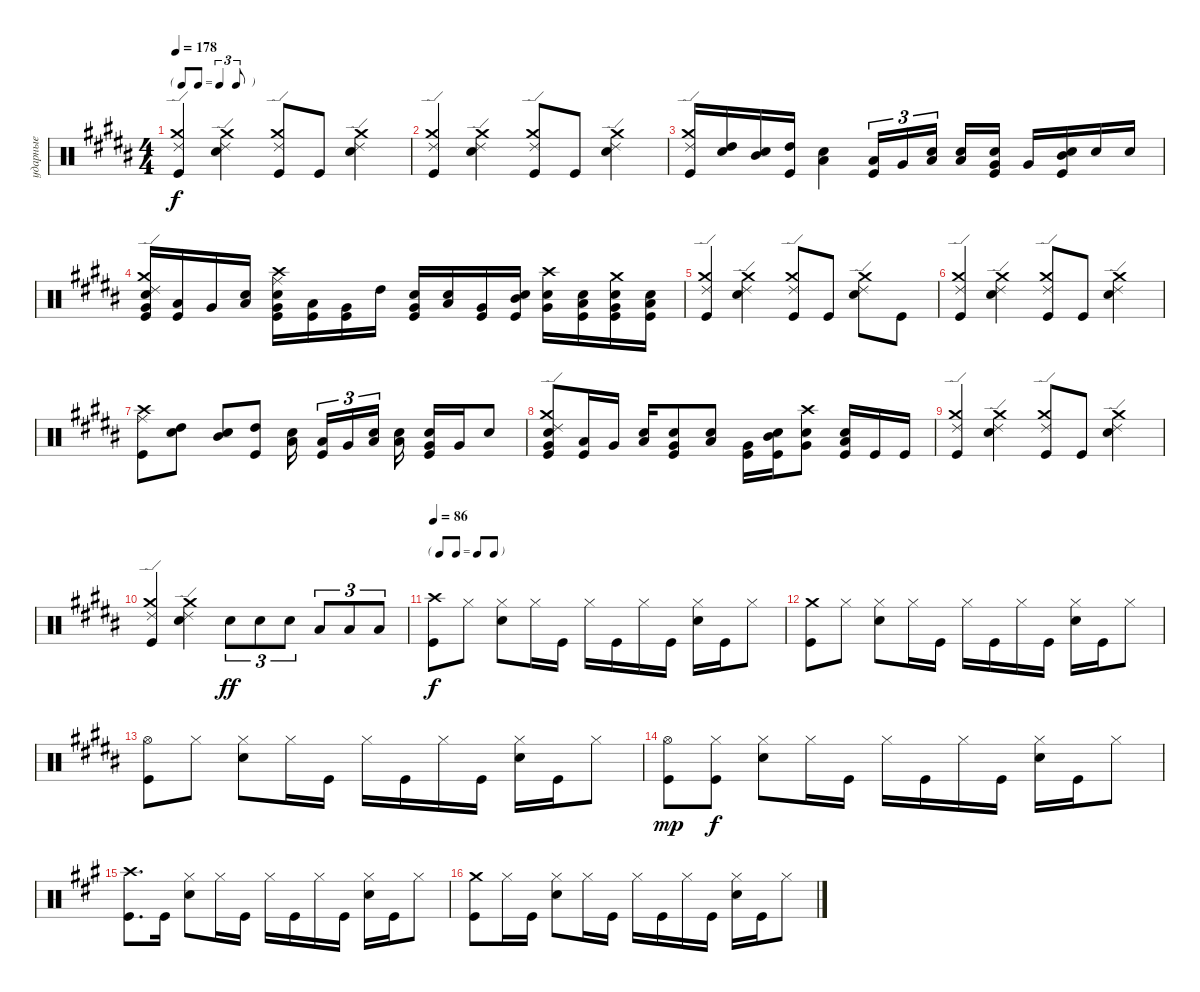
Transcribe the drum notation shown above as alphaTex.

\track ("ударные" "ударные") {instrument percussion}
\staff {score}
\articulation defaults
\ts (4 4)
\tf triplet8th
\tempo 178
\clef neutral
\ks b
("Kick (hit)" "Crash medium (hit)" "Ride (edge) 2").4{dy f} ("Snare (hit) 2" "Crash medium (hit)" "Ride (edge) 2").4 ("Kick (hit)" "Crash medium (hit)" "Ride (edge) 2").8 "Kick (hit)".8 ("Snare (hit) 2" "Crash medium (hit)" "Ride (edge) 2").4 |
("Kick (hit)" "Crash medium (hit)" "Ride (edge) 2").4 ("Snare (hit) 2" "Crash medium (hit)" "Ride (edge) 2").4 ("Kick (hit)" "Crash medium (hit)" "Ride (edge) 2").8 "Kick (hit)".8 ("Snare (hit) 2" "Crash medium (hit)" "Ride (edge) 2").4 |
("Crash medium (hit)" "Ride (edge) 2" "Kick (hit)").16 ("High Tom (hit)" "Snare (hit) 2").16 ("Mid Tom (hit)" "Snare (hit) 2").16 ("High Tom (hit)" "Kick (hit)").16 ("Low Tom (hit)" "Snare (hit) 2").4 ("Low Tom (hit)" "Kick (hit)").16{tu (3 2)} "Very Low Tom (hit)".16{tu (3 2)} ("Low Tom (hit)" "Snare (hit) 2").16{tu (3 2) beam splitsecondary} ("Low Tom (hit)" "Snare (hit) 2").16 ("Very Low Tom (hit)" "Snare (hit) 2" "Kick (hit)").16 "Very Low Tom (hit)".16 ("Mid Tom (hit)" "Snare (hit) 2" "Kick (hit)").16 "Snare (hit) 2".16 "Snare (hit) 2".16 |
("Crash medium (hit)" "Ride (edge) 2" "Very Low Tom (hit)" "Snare (hit) 2" "Kick (hit)").16 ("Low Tom (hit)" "Kick (hit)").16 "Very Low Tom (hit)".16 ("Low Tom (hit)" "Snare (hit) 2").16 ("Crash high (hit)" "Ride (middle)" "Very Low Tom (hit)" "Snare (hit) 2" "Kick (hit)").16 ("Low Tom (hit)" "Kick (hit)").16 ("Very Low Tom (hit)" "Kick (hit)").16 "High Tom (hit)".16 ("Very Low Tom (hit)" "Snare (hit) 2" "Kick (hit)").16 ("Low Tom (hit)" "Snare (hit) 2").16 ("Very Low Tom (hit)" "Kick (hit)").16 ("Mid Tom (hit)" "Snare (hit) 2" "Kick (hit)").16 ("Crash high (hit)" "Very Low Tom (hit)" "Snare (hit) 2").16 ("Low Tom (hit)" "Snare (hit) 2" "Kick (hit)").16 ("Crash medium (hit)" "Very Low Tom (hit)" "Snare (hit) 2" "Kick (hit)").16 ("Low Tom (hit)" "Snare (hit) 2" "Kick (hit)").16 |
("Kick (hit)" "Crash medium (hit)" "Ride (edge) 2").4 ("Snare (hit) 2" "Crash medium (hit)" "Ride (edge) 2").4 ("Kick (hit)" "Crash medium (hit)" "Ride (edge) 2").8 "Kick (hit)".8 ("Snare (hit) 2" "Crash medium (hit)" "Ride (edge) 2").8 "Kick (hit)".8 |
("Kick (hit)" "Crash medium (hit)" "Ride (edge) 2").4 ("Snare (hit) 2" "Crash medium (hit)" "Ride (edge) 2").4 ("Kick (hit)" "Crash medium (hit)" "Ride (edge) 2").8 "Kick (hit)".8 ("Snare (hit) 2" "Crash medium (hit)" "Ride (edge) 2").4 |
("Kick (hit)" "Crash high (hit)" "Ride (middle)").8 ("High Tom (hit)" "Snare (hit) 2").8 ("Mid Tom (hit)" "Snare (hit) 2").8 ("High Tom (hit)" "Kick (hit)").8 ("Low Tom (hit)" "Snare (hit) 2").16{beam splitsecondary} ("Low Tom (hit)" "Kick (hit)").16{tu (3 2)} "Very Low Tom (hit)".16{tu (3 2)} ("Low Tom (hit)" "Snare (hit) 2").16{tu (3 2) beam splitsecondary} ("Low Tom (hit)" "Snare (hit) 2").16 ("Very Low Tom (hit)" "Snare (hit) 2" "Kick (hit)").16 "Very Low Tom (hit)".16 "Snare (hit) 2".8 |
("Crash medium (hit)" "Ride (edge) 2" "Very Low Tom (hit)" "Snare (hit) 2" "Kick (hit)").8 ("Low Tom (hit)" "Kick (hit)").16 "Very Low Tom (hit)".16 ("Low Tom (hit)" "Snare (hit) 2").16 ("Very Low Tom (hit)" "Snare (hit) 2" "Kick (hit)").8 ("Low Tom (hit)" "Snare (hit) 2").8 ("Very Low Tom (hit)" "Kick (hit)").16 ("Mid Tom (hit)" "Snare (hit) 2" "Kick (hit)").16 ("Crash high (hit)" "Very Low Tom (hit)" "Snare (hit) 2").8 ("Low Tom (hit)" "Snare (hit) 2" "Kick (hit)").16 "Kick (hit)".16 "Kick (hit)".16 |
("Kick (hit)" "Crash medium (hit)" "Ride (edge) 2").4 ("Snare (hit) 2" "Crash medium (hit)" "Ride (edge) 2").4 ("Kick (hit)" "Crash medium (hit)" "Ride (edge) 2").8 "Kick (hit)".8 ("Snare (hit) 2" "Crash medium (hit)" "Ride (edge) 2").4 |
("Kick (hit)" "Crash medium (hit)" "Ride (edge) 2").4 ("Snare (hit) 2" "Crash medium (hit)" "Ride (edge) 2").4 "Snare (hit) 2".8{tu (3 2) dy ff} "Snare (hit) 2".8{tu (3 2)} "Snare (hit) 2".8{tu (3 2)} "Low Tom (hit)".8{tu (3 2)} "Low Tom (hit)".8{tu (3 2)} "Low Tom (hit)".8{tu (3 2)} |
\tf none
\tempo 86
("Kick (hit)" "Crash high (hit)").8{dy f} "Hi-Hat (closed)".8 ("Hi-Hat (closed)" "Snare (hit) 2").8 "Hi-Hat (closed)".16 "Kick (hit)".16 "Hi-Hat (closed)".16 "Kick (hit)".16 "Hi-Hat (closed)".16 "Kick (hit)".16 ("Hi-Hat (closed)" "Snare (hit) 2").16 "Kick (hit)".16 "Hi-Hat (closed)".8 |
("Kick (hit)" "Crash medium (hit)").8 "Hi-Hat (closed)".8 ("Hi-Hat (closed)" "Snare (hit) 2").8 "Hi-Hat (closed)".16 "Kick (hit)".16 "Hi-Hat (closed)".16 "Kick (hit)".16 "Hi-Hat (closed)".16 "Kick (hit)".16 ("Hi-Hat (closed)" "Snare (hit) 2").16 "Kick (hit)".16 "Hi-Hat (closed)".8 |
("Kick (hit)" "Hi-Hat (open)").8 "Hi-Hat (closed)".8 ("Hi-Hat (closed)" "Snare (hit) 2").8 "Hi-Hat (closed)".16 "Kick (hit)".16 "Hi-Hat (closed)".16 "Kick (hit)".16 "Hi-Hat (closed)".16 "Kick (hit)".16 ("Hi-Hat (closed)" "Snare (hit) 2").16 "Kick (hit)".16 "Hi-Hat (closed)".8 |
("Kick (hit)" "Hi-Hat (open)").8{dy mp} ("Hi-Hat (closed)" "Kick (hit)").8{dy f} ("Hi-Hat (closed)" "Snare (hit) 2").8 "Hi-Hat (closed)".16 "Kick (hit)".16 "Hi-Hat (closed)".16 "Kick (hit)".16 "Hi-Hat (closed)".16 "Kick (hit)".16 ("Hi-Hat (closed)" "Snare (hit) 2").16 "Kick (hit)".16 "Hi-Hat (closed)".8 |
\ks f#minor
("Kick (hit)" "Crash high (hit)").8{d} "Kick (hit)".16 ("Snare (hit) 2" "Hi-Hat (closed)").8 "Hi-Hat (closed)".16 "Kick (hit)".16 "Hi-Hat (closed)".16 "Kick (hit)".16 "Hi-Hat (closed)".16 "Kick (hit)".16 ("Hi-Hat (closed)" "Snare (hit) 2").16 "Kick (hit)".16 "Hi-Hat (closed)".8 |
("Kick (hit)" "Crash medium (hit)").8 "Hi-Hat (closed)".16 "Kick (hit)".16 ("Snare (hit) 2" "Hi-Hat (closed)").8 "Hi-Hat (closed)".16 "Kick (hit)".16 "Hi-Hat (closed)".16 "Kick (hit)".16 "Hi-Hat (closed)".16 "Kick (hit)".16 ("Hi-Hat (closed)" "Snare (hit) 2").16 "Kick (hit)".16 "Hi-Hat (closed)".8
